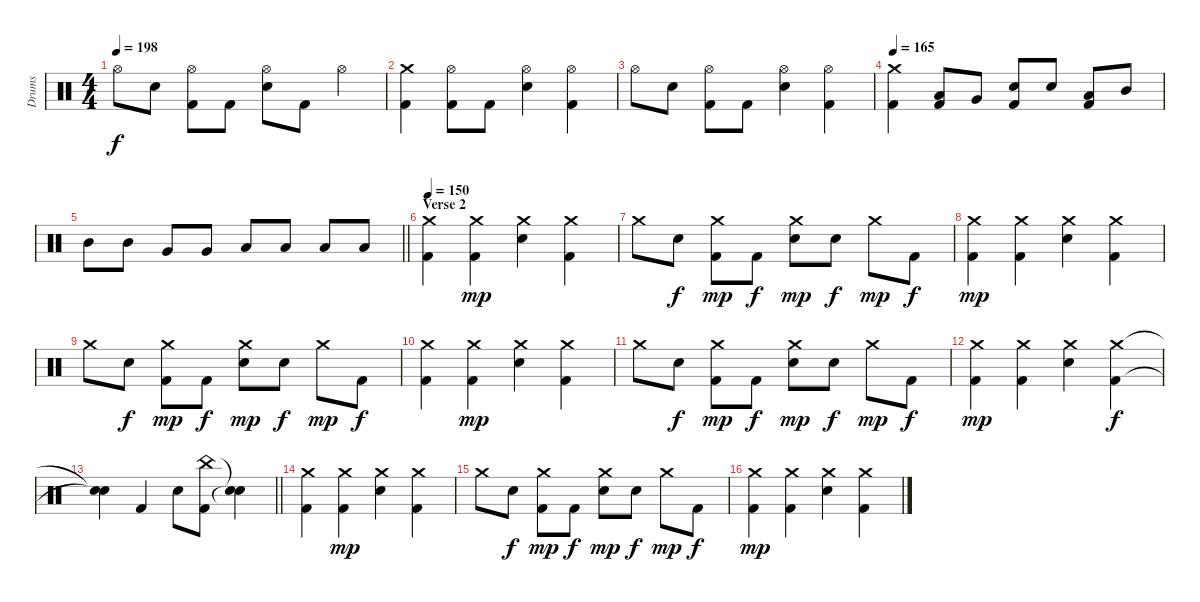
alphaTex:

\track ("Drums" "Drums") {instrument percussion}
\staff {score}
\articulation defaults
\ts (4 4)
\tempo 198
\clef neutral
\ks c "Hi-Hat (open)".8{dy f} "Snare (hit) 2".8
("Hi-Hat (open)" "Kick (hit) 2").8 "Kick (hit) 2".8 ("Hi-Hat (open)" "Snare (hit) 2").8 "Kick (hit) 2".8 "Hi-Hat (open)".4 |
("Crash medium (hit)" "Kick (hit) 2").4 ("Hi-Hat (open)" "Kick (hit) 2").8 "Kick (hit) 2".8 ("Hi-Hat (open)" "Snare (hit) 2").4 ("Hi-Hat (open)" "Kick (hit) 2").4 |
"Hi-Hat (open)".8 "Snare (hit) 2".8 ("Hi-Hat (open)" "Kick (hit) 2").8 "Kick (hit) 2".8 ("Hi-Hat (open)" "Snare (hit) 2").4 ("Hi-Hat (open)" "Kick (hit) 2").4 |
\tempo 165
("Crash medium (hit)" "Kick (hit) 2").4 ("Low Floor Tom (hit)" "Kick (hit) 2").8 "Very Low Tom (hit)".8 ("Snare (hit) 2" "Kick (hit) 2").8 "Snare (hit) 2".8 ("Low Tom (hit)" "Kick (hit) 2").8 "Mid Tom (hit)".8 |
\barLineRight lightlight "Mid Tom (hit)".8 "Mid Tom (hit)".8 "Very Low Tom (hit)".8 "Very Low Tom (hit)".8 "Low Tom (hit)".8 "Low Tom (hit)".8 "Low Floor Tom (hit)".8 "Low Floor Tom (hit)".8
|
\section ("" "Verse 2")
\tempo 150
("Crash medium (hit)" "Kick (hit) 2").4 ("Crash medium (hit)" "Kick (hit) 2").4{dy mp} ("Crash medium (hit)" "Snare (hit) 2").4 ("Crash medium (hit)" "Kick (hit) 2").4 |
"Crash medium (hit)".8 "Snare (hit) 2".8{dy f} ("Crash medium (hit)" "Kick (hit) 2").8{dy mp} "Kick (hit) 2".8{dy f} ("Crash medium (hit)" "Snare (hit) 2").8{dy mp} "Snare (hit) 2".8{dy f} "Crash medium (hit)".8{dy mp} "Kick (hit) 2".8{dy f} |
("Crash medium (hit)" "Kick (hit) 2").4{dy mp} ("Crash medium (hit)" "Kick (hit) 2").4 ("Crash medium (hit)" "Snare (hit) 2").4 ("Crash medium (hit)" "Kick (hit) 2").4 |
"Crash medium (hit)".8 "Snare (hit) 2".8{dy f} ("Crash medium (hit)" "Kick (hit) 2").8{dy mp} "Kick (hit) 2".8{dy f} ("Crash medium (hit)" "Snare (hit) 2").8{dy mp} "Snare (hit) 2".8{dy f} "Crash medium (hit)".8{dy mp} "Kick (hit) 2".8{dy f} |
("Crash medium (hit)" "Kick (hit) 2").4 ("Crash medium (hit)" "Kick (hit) 2").4{dy mp} ("Crash medium (hit)" "Snare (hit) 2").4 ("Crash medium (hit)" "Kick (hit) 2").4 |
"Crash medium (hit)".8 "Snare (hit) 2".8{dy f} ("Crash medium (hit)" "Kick (hit) 2").8{dy mp} "Kick (hit) 2".8{dy f} ("Crash medium (hit)" "Snare (hit) 2").8{dy mp} "Snare (hit) 2".8{dy f} "Crash medium (hit)".8{dy mp} "Kick (hit) 2".8{dy f} |
("Crash medium (hit)" "Kick (hit) 2").4{dy mp} ("Crash medium (hit)" "Kick (hit) 2").4 ("Crash medium (hit)" "Snare (hit) 2").4 ("Crash medium (hit)" "Kick (hit) 2").4{dy f} |
\barLineRight lightlight
("Snare (hit)"{t} "Snare (hit)"{t}).4 "Kick (hit) 2".4 "Snare (hit) 2".8 ("China (hit)" "Kick (hit) 2").8 ("Snare (hit)"{t} "Snare (hit)"{t}).4 |
("Crash medium (hit)" "Kick (hit) 2").4 ("Crash medium (hit)" "Kick (hit) 2").4{dy mp} ("Crash medium (hit)" "Snare (hit) 2").4 ("Crash medium (hit)" "Kick (hit) 2").4 |
"Crash medium (hit)".8 "Snare (hit) 2".8{dy f} ("Crash medium (hit)" "Kick (hit) 2").8{dy mp} "Kick (hit) 2".8{dy f} ("Crash medium (hit)" "Snare (hit) 2").8{dy mp} "Snare (hit) 2".8{dy f} "Crash medium (hit)".8{dy mp} "Kick (hit) 2".8{dy f} |
("Crash medium (hit)" "Kick (hit) 2").4{dy mp} ("Crash medium (hit)" "Kick (hit) 2").4 ("Crash medium (hit)" "Snare (hit) 2").4 ("Crash medium (hit)" "Kick (hit) 2").4
